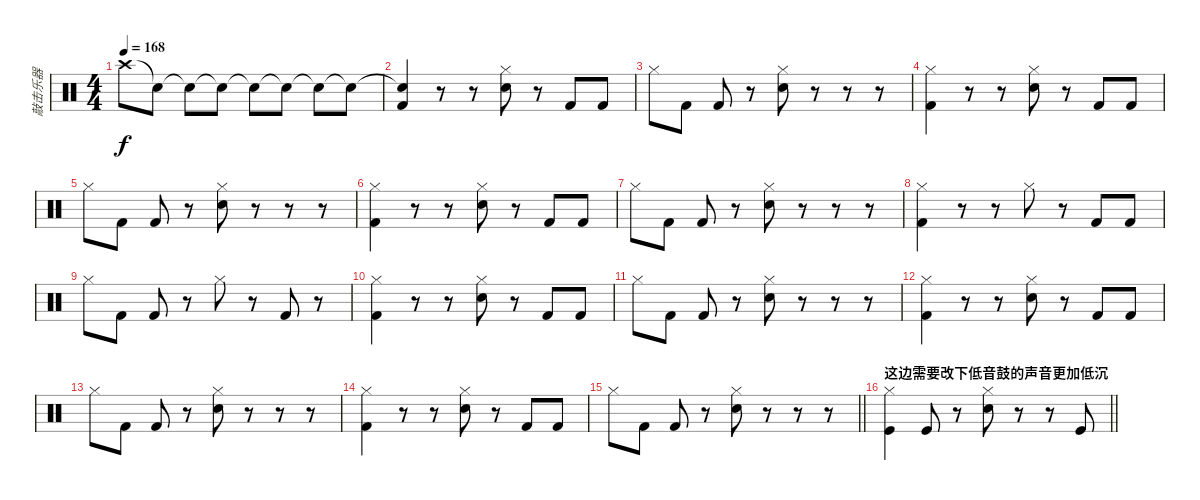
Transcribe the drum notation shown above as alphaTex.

\track ("敲击乐器" "敲击乐器") {instrument percussion}
\staff {score}
\articulation defaults
\ts (4 4)
\tempo 168
\clef neutral
\ks c "Crash high (hit)".8{dy f} "Snare (hit)"{t}.8 "Snare (hit)"{t}.8 "Snare (hit)"{t}.8 "Snare (hit)"{t}.8 "Snare (hit)"{t}.8 "Snare (hit)"{t}.8 "Snare (hit)"{t}.8
|
("Snare (hit)"{t} "Kick (hit) 2").4 r.8 r.8 ("Hi-Hat (closed)" "Snare (hit) 2").8 r.8 "Kick (hit) 2".8 "Kick (hit) 2".8 |
"Hi-Hat (closed)".8 "Kick (hit) 2".8 "Kick (hit) 2".8 r.8 ("Hi-Hat (closed)" "Snare (hit) 2").8 r.8 r.8 r.8 |
("Hi-Hat (closed)" "Kick (hit) 2").4 r.8 r.8 ("Hi-Hat (closed)" "Snare (hit) 2").8 r.8 "Kick (hit) 2".8 "Kick (hit) 2".8 |
"Hi-Hat (closed)".8 "Kick (hit) 2".8 "Kick (hit) 2".8 r.8 ("Hi-Hat (closed)" "Snare (hit) 2").8 r.8 r.8 r.8 |
("Hi-Hat (closed)" "Kick (hit) 2").4 r.8 r.8 ("Hi-Hat (closed)" "Snare (hit) 2").8 r.8 "Kick (hit) 2".8 "Kick (hit) 2".8 |
"Hi-Hat (closed)".8 "Kick (hit) 2".8 "Kick (hit) 2".8 r.8 ("Hi-Hat (closed)" "Snare (hit) 2").8 r.8 r.8 r.8 |
("Hi-Hat (closed)" "Kick (hit) 2").4 r.8 r.8 "Hi-Hat (closed)".8 r.8 "Kick (hit) 2".8 "Kick (hit) 2".8 |
"Hi-Hat (closed)".8 "Kick (hit) 2".8 "Kick (hit) 2".8 r.8 "Hi-Hat (closed)".8 r.8 "Kick (hit) 2".8 r.8 |
("Hi-Hat (closed)" "Kick (hit) 2").4 r.8 r.8 ("Hi-Hat (closed)" "Snare (hit) 2").8 r.8 "Kick (hit) 2".8 "Kick (hit) 2".8 |
"Hi-Hat (closed)".8 "Kick (hit) 2".8 "Kick (hit) 2".8 r.8 ("Hi-Hat (closed)" "Snare (hit) 2").8 r.8 r.8 r.8 |
("Hi-Hat (closed)" "Kick (hit) 2").4 r.8 r.8 ("Hi-Hat (closed)" "Snare (hit) 2").8 r.8 "Kick (hit) 2".8 "Kick (hit) 2".8 |
"Hi-Hat (closed)".8 "Kick (hit) 2".8 "Kick (hit) 2".8 r.8 ("Hi-Hat (closed)" "Snare (hit) 2").8 r.8 r.8 r.8 |
("Hi-Hat (closed)" "Kick (hit) 2").4 r.8 r.8 ("Hi-Hat (closed)" "Snare (hit) 2").8 r.8 "Kick (hit) 2".8 "Kick (hit) 2".8 |
\barLineRight lightlight "Hi-Hat (closed)".8 "Kick (hit) 2".8 "Kick (hit) 2".8
r.8 ("Hi-Hat (closed)" "Snare (hit) 2").8 r.8 r.8 r.8 |
\section ("" "这边需要改下低音鼓的声音更加低沉")
\barLineRight lightlight
("Hi-Hat (closed)" "Kick (hit)").4 "Kick (hit)".8 r.8 ("Hi-Hat (closed)" "Snare (hit) 2").8 r.8 r.8 "Kick (hit)".8
